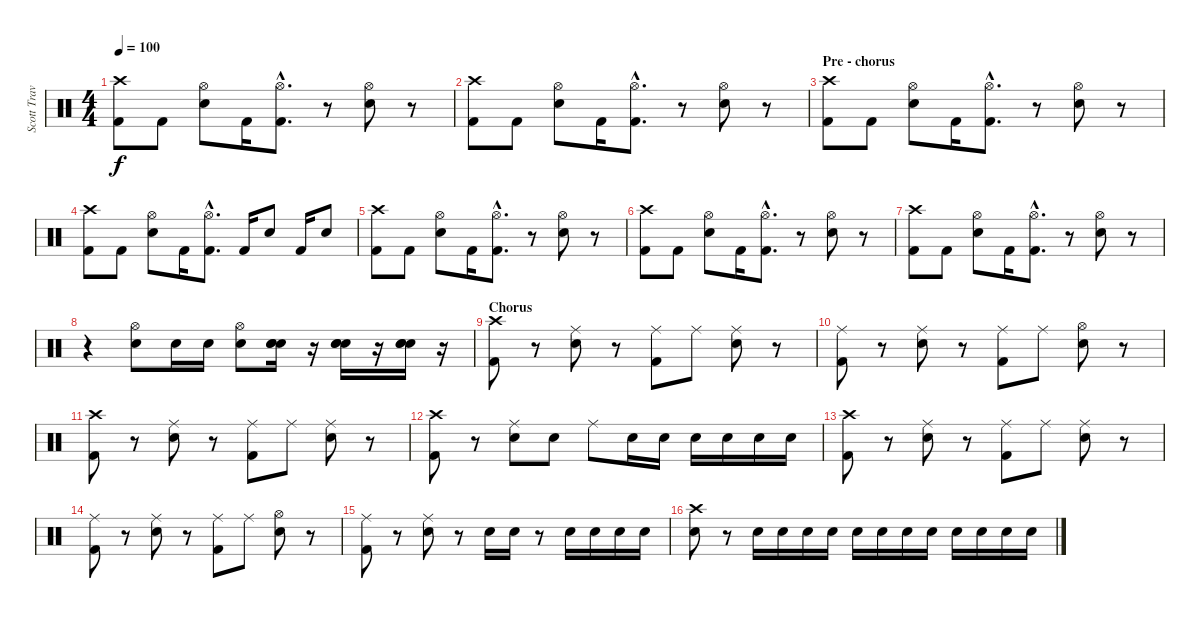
\track ("Scott Travis" "Scott Trav") {instrument percussion}
\staff {score}
\articulation defaults
\ts (4 4)
\tempo 100
\clef neutral
\ks c
("Crash high (hit)" "Kick (hit) 2").8{dy f} "Kick (hit) 2".8 ("Hi-Hat (open)" "Electric Snare (hit)").8 "Kick (hit) 2".16 ("Hi-Hat (open)"{hac} "Kick (hit) 2"{hac}).8{d} r.8 ("Hi-Hat (open)" "Electric Snare (hit)").8 r.8 |
("Crash high (hit)" "Kick (hit) 2").8 "Kick (hit) 2".8 ("Hi-Hat (open)" "Electric Snare (hit)").8 "Kick (hit) 2".16 ("Hi-Hat (open)"{hac} "Kick (hit) 2"{hac}).8{d} r.8 ("Hi-Hat (open)" "Electric Snare (hit)").8 r.8 |
\section ("" "Pre - chorus")
("Crash high (hit)" "Kick (hit) 2").8 "Kick (hit) 2".8 ("Hi-Hat (open)" "Electric Snare (hit)").8 "Kick (hit) 2".16 ("Hi-Hat (open)"{hac} "Kick (hit) 2"{hac}).8{d} r.8 ("Hi-Hat (open)" "Electric Snare (hit)").8 r.8 |
("Crash high (hit)" "Kick (hit) 2").8 "Kick (hit) 2".8 ("Hi-Hat (open)" "Electric Snare (hit)").8 "Kick (hit) 2".16 ("Hi-Hat (open)"{hac} "Kick (hit) 2"{hac}).8{d} "Kick (hit) 2".16 "Electric Snare (hit)".8 "Kick (hit) 2".16 "Electric Snare (hit)".8 |
("Crash high (hit)" "Kick (hit) 2").8 "Kick (hit) 2".8 ("Hi-Hat (open)" "Electric Snare (hit)").8 "Kick (hit) 2".16 ("Hi-Hat (open)"{hac} "Kick (hit) 2"{hac}).8{d} r.8 ("Hi-Hat (open)" "Electric Snare (hit)").8 r.8 |
("Crash high (hit)" "Kick (hit) 2").8 "Kick (hit) 2".8 ("Hi-Hat (open)" "Electric Snare (hit)").8 "Kick (hit) 2".16 ("Hi-Hat (open)"{hac} "Kick (hit) 2"{hac}).8{d} r.8 ("Hi-Hat (open)" "Electric Snare (hit)").8 r.8 |
("Crash high (hit)" "Kick (hit) 2").8 "Kick (hit) 2".8 ("Hi-Hat (open)" "Electric Snare (hit)").8 "Kick (hit) 2".16 ("Hi-Hat (open)"{hac} "Kick (hit) 2"{hac}).8{d} r.8 ("Hi-Hat (open)" "Electric Snare (hit)").8 r.8 |
r.4 ("Hi-Hat (open)" "Electric Snare (hit)").8 "Electric Snare (hit)".16 "Electric Snare (hit)".16 ("Hi-Hat (open)" "Electric Snare (hit)").8 ("Electric Snare (hit)" "Electric Snare (hit)" "Electric Snare (hit)").16 r.16 ("Electric Snare (hit)" "Electric Snare (hit)" "Electric Snare (hit)").16 r.16 ("Electric Snare (hit)" "Electric Snare (hit)" "Electric Snare (hit)").16 r.16 |
\section ("" "Chorus")
("Crash high (hit)" "Kick (hit) 2").8 r.8 ("Ride (middle)" "Electric Snare (hit)").8 r.8 ("Ride (middle)" "Kick (hit) 2").8 "Ride (middle)".8 ("Ride (middle)" "Electric Snare (hit)").8 r.8 |
("Ride (middle)" "Kick (hit) 2").8 r.8 ("Ride (middle)" "Electric Snare (hit)").8 r.8 ("Ride (middle)" "Kick (hit) 2").8 "Ride (middle)".8 ("Hi-Hat (open)" "Electric Snare (hit)").8 r.8 |
("Crash high (hit)" "Kick (hit) 2").8 r.8 ("Ride (middle)" "Electric Snare (hit)").8 r.8 ("Ride (middle)" "Kick (hit) 2").8 "Ride (middle)".8 ("Ride (middle)" "Electric Snare (hit)").8 r.8 |
("Crash high (hit)" "Kick (hit) 2").8 r.8 ("Ride (middle)" "Electric Snare (hit)").8 "Electric Snare (hit)".8 "Ride (middle)".8 "Electric Snare (hit)".16 "Electric Snare (hit)".16 "Electric Snare (hit)".16 "Electric Snare (hit)".16 "Electric Snare (hit)".16 "Electric Snare (hit)".16 |
("Crash high (hit)" "Kick (hit) 2").8 r.8 ("Ride (middle)" "Electric Snare (hit)").8 r.8 ("Ride (middle)" "Kick (hit) 2").8 "Ride (middle)".8 ("Ride (middle)" "Electric Snare (hit)").8 r.8 |
("Ride (middle)" "Kick (hit) 2").8 r.8 ("Ride (middle)" "Electric Snare (hit)").8 r.8 ("Ride (middle)" "Kick (hit) 2").8 "Ride (middle)".8 ("Hi-Hat (open)" "Electric Snare (hit)").8 r.8 |
("Ride (middle)" "Kick (hit) 2").8 r.8 ("Ride (middle)" "Electric Snare (hit)").8 r.8 "Electric Snare (hit)".16 "Electric Snare (hit)".16 r.8 "Electric Snare (hit)".16 "Electric Snare (hit)".16 "Electric Snare (hit)".16 "Electric Snare (hit)".16 |
("Crash high (hit)" "Electric Snare (hit)").8 r.8 "Electric Snare (hit)".16 "Electric Snare (hit)".16 "Electric Snare (hit)".16 "Electric Snare (hit)".16 "Electric Snare (hit)".16 "Electric Snare (hit)".16 "Electric Snare (hit)".16 "Electric Snare (hit)".16 "Electric Snare (hit)".16 "Electric Snare (hit)".16 "Electric Snare (hit)".16 "Electric Snare (hit)".16
